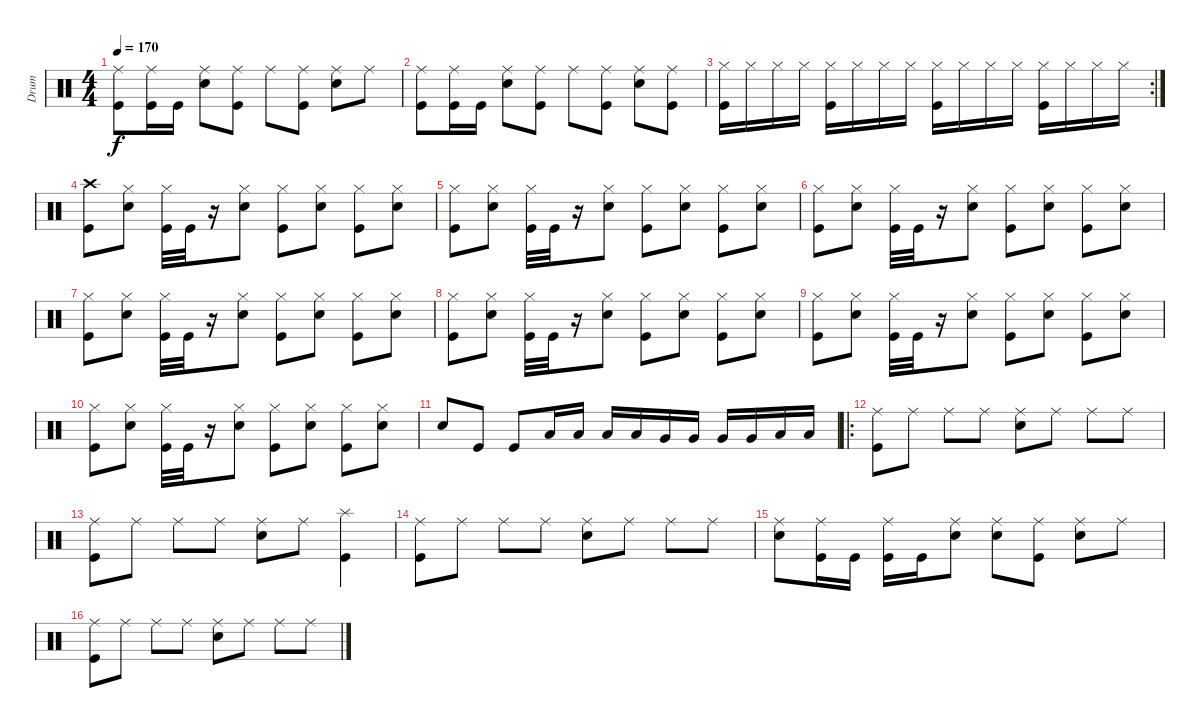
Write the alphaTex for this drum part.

\track ("Drum" "Drum") {instrument percussion}
\staff {score}
\articulation defaults
\ts (4 4)
\tempo 170
\clef neutral
\ks c
("Kick (hit)" "Ride (middle)").8{dy f} ("Kick (hit)" "Ride (middle)").16 "Kick (hit)".16 ("Electric Snare (hit)" "Ride (middle)").8 ("Kick (hit)" "Ride (middle)").8 "Ride (middle)".8 ("Kick (hit)" "Ride (middle)").8 ("Electric Snare (hit)" "Ride (middle)").8 "Ride (middle)".8 |
("Kick (hit)" "Ride (middle)").8 ("Kick (hit)" "Ride (middle)").16 "Kick (hit)".16 ("Electric Snare (hit)" "Ride (middle)").8 ("Kick (hit)" "Ride (middle)").8 "Ride (middle)".8 ("Kick (hit)" "Ride (middle)").8 ("Electric Snare (hit)" "Ride (middle)").8 ("Kick (hit)" "Ride (middle)").8 |
\rc 2
("Kick (hit)" "Hi-Hat (closed)").16 "Hi-Hat (closed)".16 "Hi-Hat (closed)".16 "Hi-Hat (closed)".16 ("Kick (hit)" "Hi-Hat (closed)").16 "Hi-Hat (closed)".16 "Hi-Hat (closed)".16 "Hi-Hat (closed)".16 ("Kick (hit)" "Hi-Hat (closed)").16 "Hi-Hat (closed)".16 "Hi-Hat (closed)".16 "Hi-Hat (closed)".16 ("Kick (hit)" "Hi-Hat (closed)").16 "Hi-Hat (closed)".16 "Hi-Hat (closed)".16 "Hi-Hat (closed)".16 |
("Kick (hit)" "Crash high (hit)").8 ("Electric Snare (hit)" "Hi-Hat (closed)").8 ("Kick (hit)" "Hi-Hat (closed)").32 "Kick (hit)".32 r.16 ("Electric Snare (hit)" "Hi-Hat (closed)").8 ("Kick (hit)" "Hi-Hat (closed)").8 ("Electric Snare (hit)" "Hi-Hat (closed)").8 ("Kick (hit)" "Hi-Hat (closed)").8 ("Electric Snare (hit)" "Hi-Hat (closed)").8 |
("Kick (hit)" "Hi-Hat (closed)").8 ("Electric Snare (hit)" "Hi-Hat (closed)").8 ("Kick (hit)" "Hi-Hat (closed)").32 "Kick (hit)".32 r.16 ("Electric Snare (hit)" "Hi-Hat (closed)").8 ("Kick (hit)" "Hi-Hat (closed)").8 ("Electric Snare (hit)" "Hi-Hat (closed)").8 ("Kick (hit)" "Hi-Hat (closed)").8 ("Electric Snare (hit)" "Hi-Hat (closed)").8 |
("Kick (hit)" "Hi-Hat (closed)").8 ("Electric Snare (hit)" "Hi-Hat (closed)").8 ("Kick (hit)" "Hi-Hat (closed)").32 "Kick (hit)".32 r.16 ("Electric Snare (hit)" "Hi-Hat (closed)").8 ("Kick (hit)" "Hi-Hat (closed)").8 ("Electric Snare (hit)" "Hi-Hat (closed)").8 ("Kick (hit)" "Hi-Hat (closed)").8 ("Electric Snare (hit)" "Hi-Hat (closed)").8 |
("Kick (hit)" "Hi-Hat (closed)").8 ("Electric Snare (hit)" "Hi-Hat (closed)").8 ("Kick (hit)" "Hi-Hat (closed)").32 "Kick (hit)".32 r.16 ("Electric Snare (hit)" "Hi-Hat (closed)").8 ("Kick (hit)" "Hi-Hat (closed)").8 ("Electric Snare (hit)" "Hi-Hat (closed)").8 ("Kick (hit)" "Hi-Hat (closed)").8 ("Electric Snare (hit)" "Hi-Hat (closed)").8 |
("Kick (hit)" "Hi-Hat (closed)").8 ("Electric Snare (hit)" "Hi-Hat (closed)").8 ("Kick (hit)" "Hi-Hat (closed)").32 "Kick (hit)".32 r.16 ("Electric Snare (hit)" "Hi-Hat (closed)").8 ("Kick (hit)" "Hi-Hat (closed)").8 ("Electric Snare (hit)" "Hi-Hat (closed)").8 ("Kick (hit)" "Hi-Hat (closed)").8 ("Electric Snare (hit)" "Hi-Hat (closed)").8 |
("Kick (hit)" "Hi-Hat (closed)").8 ("Electric Snare (hit)" "Hi-Hat (closed)").8 ("Kick (hit)" "Hi-Hat (closed)").32 "Kick (hit)".32 r.16 ("Electric Snare (hit)" "Hi-Hat (closed)").8 ("Kick (hit)" "Hi-Hat (closed)").8 ("Electric Snare (hit)" "Hi-Hat (closed)").8 ("Kick (hit)" "Hi-Hat (closed)").8 ("Electric Snare (hit)" "Hi-Hat (closed)").8 |
("Kick (hit)" "Hi-Hat (closed)").8 ("Electric Snare (hit)" "Hi-Hat (closed)").8 ("Kick (hit)" "Hi-Hat (closed)").32 "Kick (hit)".32 r.16 ("Electric Snare (hit)" "Hi-Hat (closed)").8 ("Kick (hit)" "Hi-Hat (closed)").8 ("Electric Snare (hit)" "Hi-Hat (closed)").8 ("Kick (hit)" "Hi-Hat (closed)").8 ("Electric Snare (hit)" "Hi-Hat (closed)").8 |
"Electric Snare (hit)".8 "Kick (hit)".8 "Kick (hit)".8 "Low Tom (hit)".16 "Low Tom (hit)".16 "Low Tom (hit)".16 "Low Tom (hit)".16 "Very Low Tom (hit)".16 "Very Low Tom (hit)".16 "Very Low Tom (hit)".16 "Very Low Tom (hit)".16 "Low Floor Tom (hit)".16 "Low Floor Tom (hit)".16 |
\ro
("Kick (hit)" "Ride (middle)").8 "Ride (middle)".8 "Ride (middle)".8 "Ride (middle)".8 ("Electric Snare (hit)" "Ride (middle)").8 "Ride (middle)".8 "Ride (middle)".8 "Ride (middle)".8 |
("Kick (hit)" "Ride (middle)").8 "Ride (middle)".8 "Ride (middle)".8 "Ride (middle)".8 ("Electric Snare (hit)" "Ride (middle)").8 "Ride (middle)".8 ("Kick (hit)" "Splash (hit)").4 |
("Kick (hit)" "Ride (middle)").8 "Ride (middle)".8 "Ride (middle)".8 "Ride (middle)".8 ("Electric Snare (hit)" "Ride (middle)").8 "Ride (middle)".8 "Ride (middle)".8 "Ride (middle)".8 |
("Electric Snare (hit)" "Ride (middle)").8 ("Kick (hit)" "Ride (middle)").16 "Kick (hit)".16 ("Kick (hit)" "Ride (middle)").16 "Kick (hit)".16 ("Electric Snare (hit)" "Ride (middle)").8 ("Electric Snare (hit)" "Ride (middle)").8 ("Kick (hit)" "Ride (middle)").8 ("Electric Snare (hit)" "Ride (middle)").8 "Ride (middle)".8 |
("Kick (hit)" "Ride (middle)").8 "Ride (middle)".8 "Ride (middle)".8 "Ride (middle)".8 ("Electric Snare (hit)" "Ride (middle)").8 "Ride (middle)".8 "Ride (middle)".8 "Ride (middle)".8
